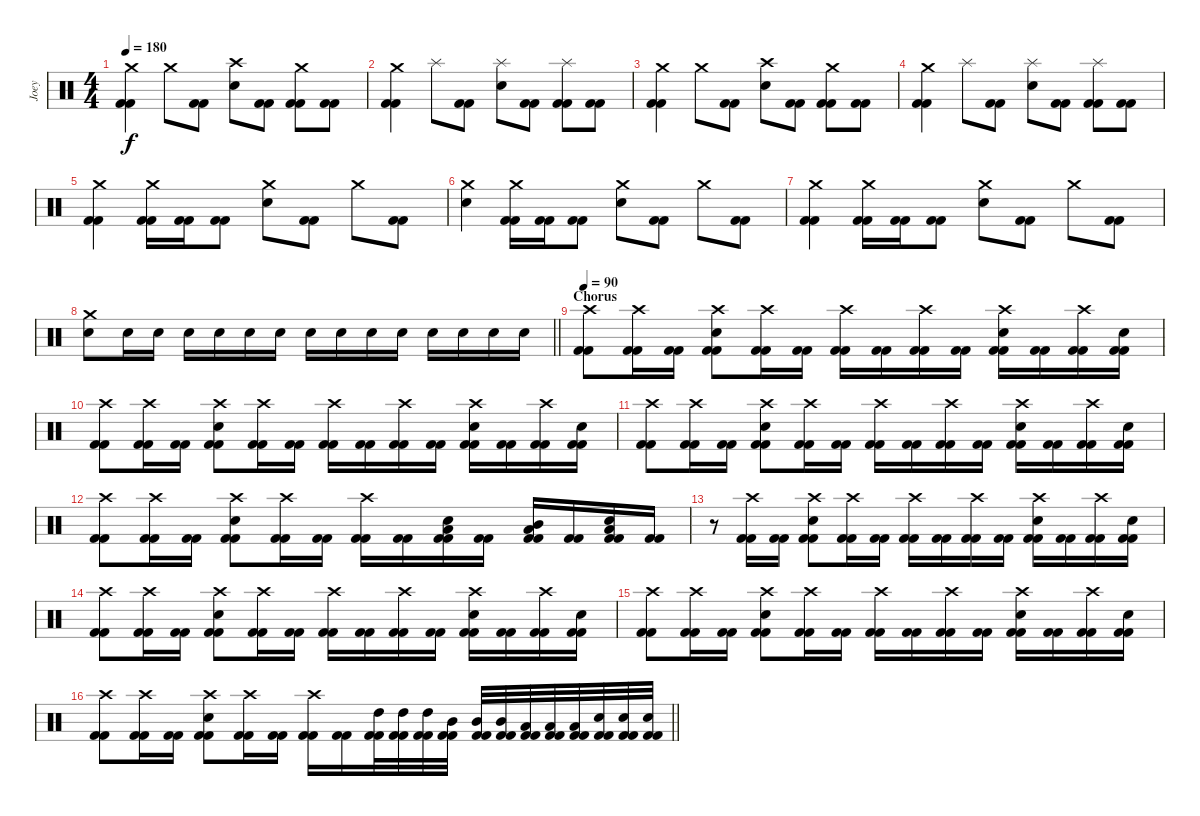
\track ("Joey" "Joey") {instrument percussion}
\staff {score}
\articulation defaults
\ts (4 4)
\tempo 180
\clef neutral
\ks c
("Crash medium (hit)" "Kick (hit) 2" "Kick (hit) 2").4{dy f} "Crash medium (hit)".8 ("Kick (hit) 2" "Kick (hit) 2").8 ("Electric Snare (hit)" "Crash high (hit)").8 ("Kick (hit) 2" "Kick (hit) 2").8 ("Crash medium (hit)" "Kick (hit) 2" "Kick (hit) 2").8 ("Kick (hit) 2" "Kick (hit) 2").8 |
("Crash medium (hit)" "Kick (hit) 2" "Kick (hit) 2").4 "Splash (hit)".8 ("Kick (hit) 2" "Kick (hit) 2").8 ("Electric Snare (hit)" "Splash (hit)").8 ("Kick (hit) 2" "Kick (hit) 2").8 ("Splash (hit)" "Kick (hit) 2" "Kick (hit) 2").8 ("Kick (hit) 2" "Kick (hit) 2").8 |
("Crash medium (hit)" "Kick (hit) 2" "Kick (hit) 2").4 "Crash medium (hit)".8 ("Kick (hit) 2" "Kick (hit) 2").8 ("Electric Snare (hit)" "Crash high (hit)").8 ("Kick (hit) 2" "Kick (hit) 2").8 ("Crash medium (hit)" "Kick (hit) 2" "Kick (hit) 2").8 ("Kick (hit) 2" "Kick (hit) 2").8 |
("Crash medium (hit)" "Kick (hit) 2" "Kick (hit) 2").4 "Splash (hit)".8 ("Kick (hit) 2" "Kick (hit) 2").8 ("Electric Snare (hit)" "Splash (hit)").8 ("Kick (hit) 2" "Kick (hit) 2").8 ("Splash (hit)" "Kick (hit) 2" "Kick (hit) 2").8 ("Kick (hit) 2" "Kick (hit) 2").8 |
("Crash medium (hit)" "Kick (hit) 2" "Kick (hit) 2").4 ("Crash medium (hit)" "Kick (hit) 2" "Kick (hit) 2").16 ("Kick (hit) 2" "Kick (hit) 2").16 ("Kick (hit) 2" "Kick (hit) 2").8 ("Electric Snare (hit)" "Crash medium (hit)").8 ("Kick (hit) 2" "Kick (hit) 2").8 "Crash medium (hit)".8 ("Kick (hit) 2" "Kick (hit) 2").8 |
("Electric Snare (hit)" "Crash medium (hit)").4 ("Crash medium (hit)" "Kick (hit) 2" "Kick (hit) 2").16 ("Kick (hit) 2" "Kick (hit) 2").16 ("Kick (hit) 2" "Kick (hit) 2").8 ("Electric Snare (hit)" "Crash medium (hit)").8 ("Kick (hit) 2" "Kick (hit) 2").8 "Crash medium (hit)".8 ("Kick (hit) 2" "Kick (hit) 2").8 |
("Crash medium (hit)" "Kick (hit) 2" "Kick (hit) 2").4 ("Crash medium (hit)" "Kick (hit) 2" "Kick (hit) 2").16 ("Kick (hit) 2" "Kick (hit) 2").16 ("Kick (hit) 2" "Kick (hit) 2").8 ("Electric Snare (hit)" "Crash medium (hit)").8 ("Kick (hit) 2" "Kick (hit) 2").8 "Crash medium (hit)".8 ("Kick (hit) 2" "Kick (hit) 2").8 |
\barLineRight lightlight
("Electric Snare (hit)" "Crash medium (hit)").8 "Electric Snare (hit)".16 "Electric Snare (hit)".16 "Electric Snare (hit)".16 "Electric Snare (hit)".16 "Electric Snare (hit)".16 "Electric Snare (hit)".16 "Electric Snare (hit)".16 "Electric Snare (hit)".16 "Electric Snare (hit)".16 "Electric Snare (hit)".16 "Electric Snare (hit)".16 "Electric Snare (hit)".16 "Electric Snare (hit)".16 "Electric Snare (hit)".16 |
\section ("" "Chorus")
\tempo 90
("Crash high (hit)" "Kick (hit) 2" "Kick (hit) 2").8 ("Crash high (hit)" "Kick (hit) 2" "Kick (hit) 2").16 ("Kick (hit) 2" "Kick (hit) 2").16 ("Electric Snare (hit)" "Crash high (hit)" "Kick (hit) 2" "Kick (hit) 2").8 ("Crash high (hit)" "Kick (hit) 2" "Kick (hit) 2").16 ("Kick (hit) 2" "Kick (hit) 2").16 ("Crash high (hit)" "Kick (hit) 2" "Kick (hit) 2").16 ("Kick (hit) 2" "Kick (hit) 2").16 ("Crash high (hit)" "Kick (hit) 2" "Kick (hit) 2").16 ("Kick (hit) 2" "Kick (hit) 2").16 ("Electric Snare (hit)" "Crash high (hit)" "Kick (hit) 2" "Kick (hit) 2").16 ("Kick (hit) 2" "Kick (hit) 2").16 ("Crash high (hit)" "Kick (hit) 2" "Kick (hit) 2").16 ("Electric Snare (hit)" "Kick (hit) 2" "Kick (hit) 2").16 |
("Crash high (hit)" "Kick (hit) 2" "Kick (hit) 2").8 ("Crash high (hit)" "Kick (hit) 2" "Kick (hit) 2").16 ("Kick (hit) 2" "Kick (hit) 2").16 ("Electric Snare (hit)" "Crash high (hit)" "Kick (hit) 2" "Kick (hit) 2").8 ("Crash high (hit)" "Kick (hit) 2" "Kick (hit) 2").16 ("Kick (hit) 2" "Kick (hit) 2").16 ("Crash high (hit)" "Kick (hit) 2" "Kick (hit) 2").16 ("Kick (hit) 2" "Kick (hit) 2").16 ("Crash high (hit)" "Kick (hit) 2" "Kick (hit) 2").16 ("Kick (hit) 2" "Kick (hit) 2").16 ("Electric Snare (hit)" "Crash high (hit)" "Kick (hit) 2" "Kick (hit) 2").16 ("Kick (hit) 2" "Kick (hit) 2").16 ("Crash high (hit)" "Kick (hit) 2" "Kick (hit) 2").16 ("Electric Snare (hit)" "Kick (hit) 2" "Kick (hit) 2").16 |
("Crash high (hit)" "Kick (hit) 2" "Kick (hit) 2").8 ("Crash high (hit)" "Kick (hit) 2" "Kick (hit) 2").16 ("Kick (hit) 2" "Kick (hit) 2").16 ("Electric Snare (hit)" "Crash high (hit)" "Kick (hit) 2" "Kick (hit) 2").8 ("Crash high (hit)" "Kick (hit) 2" "Kick (hit) 2").16 ("Kick (hit) 2" "Kick (hit) 2").16 ("Crash high (hit)" "Kick (hit) 2" "Kick (hit) 2").16 ("Kick (hit) 2" "Kick (hit) 2").16 ("Crash high (hit)" "Kick (hit) 2" "Kick (hit) 2").16 ("Kick (hit) 2" "Kick (hit) 2").16 ("Electric Snare (hit)" "Crash high (hit)" "Kick (hit) 2" "Kick (hit) 2").16 ("Kick (hit) 2" "Kick (hit) 2").16 ("Crash high (hit)" "Kick (hit) 2" "Kick (hit) 2").16 ("Electric Snare (hit)" "Kick (hit) 2" "Kick (hit) 2").16 |
("Crash high (hit)" "Kick (hit) 2" "Kick (hit) 2").8 ("Crash high (hit)" "Kick (hit) 2" "Kick (hit) 2").16 ("Kick (hit) 2" "Kick (hit) 2").16 ("Electric Snare (hit)" "Crash high (hit)" "Kick (hit) 2" "Kick (hit) 2").8 ("Crash high (hit)" "Kick (hit) 2" "Kick (hit) 2").16 ("Kick (hit) 2" "Kick (hit) 2").16 ("Crash high (hit)" "Kick (hit) 2" "Kick (hit) 2").16 ("Kick (hit) 2" "Kick (hit) 2").16 ("Electric Snare (hit)" "Low Tom (hit)" "Kick (hit) 2" "Kick (hit) 2").16 ("Kick (hit) 2" "Kick (hit) 2").16 ("Low Tom (hit)" "Mid Tom (hit)" "Kick (hit) 2" "Kick (hit) 2").16 ("Kick (hit) 2" "Kick (hit) 2").16 ("Electric Snare (hit)" "Low Tom (hit)" "Kick (hit) 2" "Kick (hit) 2").16 ("Kick (hit) 2" "Kick (hit) 2").16 |
r.8 ("Crash high (hit)" "Kick (hit) 2" "Kick (hit) 2").16 ("Kick (hit) 2" "Kick (hit) 2").16 ("Electric Snare (hit)" "Crash high (hit)" "Kick (hit) 2" "Kick (hit) 2").8 ("Crash high (hit)" "Kick (hit) 2" "Kick (hit) 2").16 ("Kick (hit) 2" "Kick (hit) 2").16 ("Crash high (hit)" "Kick (hit) 2" "Kick (hit) 2").16 ("Kick (hit) 2" "Kick (hit) 2").16 ("Crash high (hit)" "Kick (hit) 2" "Kick (hit) 2").16 ("Kick (hit) 2" "Kick (hit) 2").16 ("Electric Snare (hit)" "Crash high (hit)" "Kick (hit) 2" "Kick (hit) 2").16 ("Kick (hit) 2" "Kick (hit) 2").16 ("Crash high (hit)" "Kick (hit) 2" "Kick (hit) 2").16 ("Electric Snare (hit)" "Kick (hit) 2" "Kick (hit) 2").16 |
("Crash high (hit)" "Kick (hit) 2" "Kick (hit) 2").8 ("Crash high (hit)" "Kick (hit) 2" "Kick (hit) 2").16 ("Kick (hit) 2" "Kick (hit) 2").16 ("Electric Snare (hit)" "Crash high (hit)" "Kick (hit) 2" "Kick (hit) 2").8 ("Crash high (hit)" "Kick (hit) 2" "Kick (hit) 2").16 ("Kick (hit) 2" "Kick (hit) 2").16 ("Crash high (hit)" "Kick (hit) 2" "Kick (hit) 2").16 ("Kick (hit) 2" "Kick (hit) 2").16 ("Crash high (hit)" "Kick (hit) 2" "Kick (hit) 2").16 ("Kick (hit) 2" "Kick (hit) 2").16 ("Electric Snare (hit)" "Crash high (hit)" "Kick (hit) 2" "Kick (hit) 2").16 ("Kick (hit) 2" "Kick (hit) 2").16 ("Crash high (hit)" "Kick (hit) 2" "Kick (hit) 2").16 ("Electric Snare (hit)" "Kick (hit) 2" "Kick (hit) 2").16 |
("Crash high (hit)" "Kick (hit) 2" "Kick (hit) 2").8 ("Crash high (hit)" "Kick (hit) 2" "Kick (hit) 2").16 ("Kick (hit) 2" "Kick (hit) 2").16 ("Electric Snare (hit)" "Crash high (hit)" "Kick (hit) 2" "Kick (hit) 2").8 ("Crash high (hit)" "Kick (hit) 2" "Kick (hit) 2").16 ("Kick (hit) 2" "Kick (hit) 2").16 ("Crash high (hit)" "Kick (hit) 2" "Kick (hit) 2").16 ("Kick (hit) 2" "Kick (hit) 2").16 ("Crash high (hit)" "Kick (hit) 2" "Kick (hit) 2").16 ("Kick (hit) 2" "Kick (hit) 2").16 ("Electric Snare (hit)" "Crash high (hit)" "Kick (hit) 2" "Kick (hit) 2").16 ("Kick (hit) 2" "Kick (hit) 2").16 ("Crash high (hit)" "Kick (hit) 2" "Kick (hit) 2").16 ("Electric Snare (hit)" "Kick (hit) 2" "Kick (hit) 2").16 |
\barLineRight lightlight
("Crash high (hit)" "Kick (hit) 2" "Kick (hit) 2").8 ("Crash high (hit)" "Kick (hit) 2" "Kick (hit) 2").16 ("Kick (hit) 2" "Kick (hit) 2").16 ("Electric Snare (hit)" "Crash high (hit)" "Kick (hit) 2" "Kick (hit) 2").8 ("Crash high (hit)" "Kick (hit) 2" "Kick (hit) 2").16 ("Kick (hit) 2" "Kick (hit) 2").16 ("Crash high (hit)" "Kick (hit) 2" "Kick (hit) 2").16 ("Kick (hit) 2" "Kick (hit) 2").16 ("High Tom (hit)" "Kick (hit) 2" "Kick (hit) 2").32 ("High Tom (hit)" "Kick (hit) 2" "Kick (hit) 2").32 ("High Tom (hit)" "Kick (hit) 2" "Kick (hit) 2").32 ("Mid Tom (hit)" "Kick (hit) 2" "Kick (hit) 2").32 ("Mid Tom (hit)" "Kick (hit) 2" "Kick (hit) 2").32 ("Mid Tom (hit)" "Kick (hit) 2" "Kick (hit) 2").32 ("Low Tom (hit)" "Kick (hit) 2" "Kick (hit) 2").32 ("Low Tom (hit)" "Kick (hit) 2" "Kick (hit) 2").32 ("Low Tom (hit)" "Kick (hit) 2" "Kick (hit) 2").32 ("Electric Snare (hit)" "Kick (hit) 2" "Kick (hit) 2").32 ("Electric Snare (hit)" "Kick (hit) 2" "Kick (hit) 2").32 ("Electric Snare (hit)" "Kick (hit) 2" "Kick (hit) 2").32
